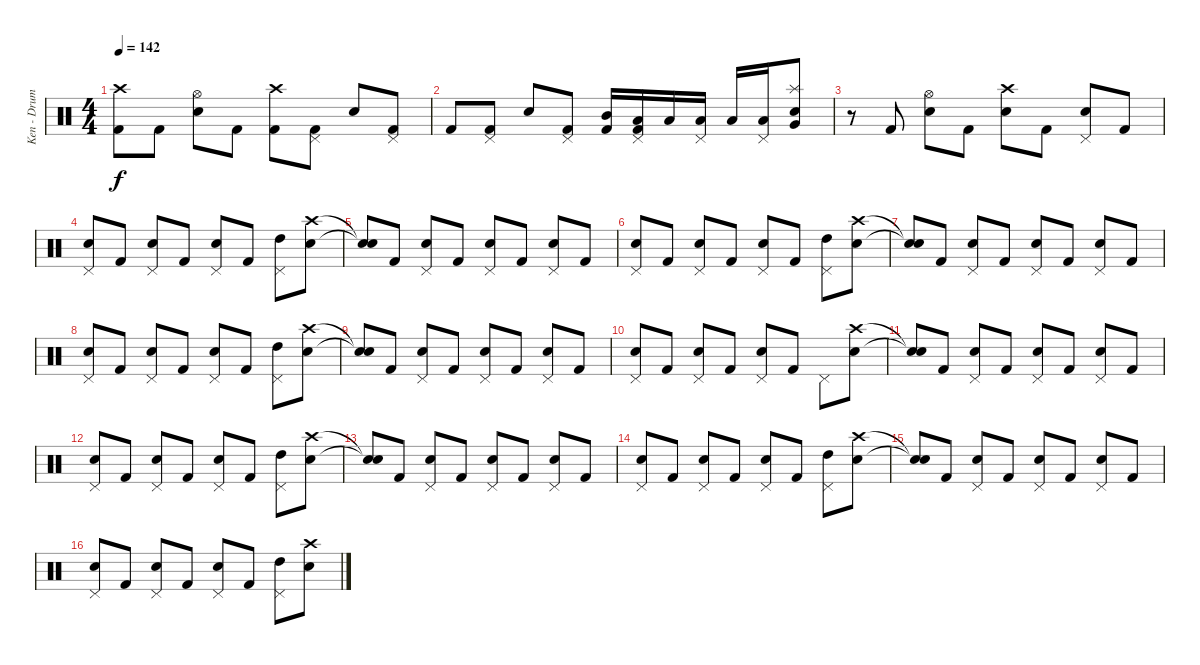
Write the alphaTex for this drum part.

\track ("Ken - Drums" "Ken - Drum") {instrument percussion}
\staff {score}
\articulation defaults
\ts (4 4)
\tempo 142
\clef neutral
\ks c
("Crash high (hit)" "Kick (hit) 2").8{dy f} "Kick (hit) 2".8 ("Hi-Hat (open)" "Electric Snare (hit)").8 "Kick (hit) 2".8 ("Crash high (hit)" "Kick (hit) 2").8 ("Pedal Hi-Hat (hit)" "Kick (hit) 2").8 "Electric Snare (hit)".8 ("Pedal Hi-Hat (hit)" "Kick (hit) 2").8 |
"Kick (hit) 2".8 ("Pedal Hi-Hat (hit)" "Kick (hit) 2").8 "Electric Snare (hit)".8 ("Pedal Hi-Hat (hit)" "Kick (hit) 2").8 ("Mid Tom (hit)" "Kick (hit) 2").16 ("Pedal Hi-Hat (hit)" "Low Tom (hit)" "Kick (hit) 2").16 "Low Tom (hit)".16 ("Pedal Hi-Hat (hit)" "Low Tom (hit)").16 "Low Tom (hit)".16 ("Pedal Hi-Hat (hit)" "Low Tom (hit)").16 ("Splash (hit)" "Electric Snare (hit)" "Very Low Tom (hit)").8 |
r.8 "Kick (hit) 2".8 ("Hi-Hat (open)" "Electric Snare (hit)").8 "Kick (hit) 2".8 ("Crash high (hit)" "Electric Snare (hit)").8 "Kick (hit) 2".8 ("Pedal Hi-Hat (hit)" "Electric Snare (hit)").8 "Kick (hit) 2".8 |
("Pedal Hi-Hat (hit)" "Electric Snare (hit)").8 "Kick (hit) 2".8 ("Pedal Hi-Hat (hit)" "Electric Snare (hit)").8 "Kick (hit) 2".8 ("Pedal Hi-Hat (hit)" "Electric Snare (hit)").8 "Kick (hit) 2".8 ("Pedal Hi-Hat (hit)" "High Tom (hit)").8 ("Crash high (hit)" "Electric Snare (hit)").8 |
("Snare (hit)"{t} "Snare (hit)"{t}).8 "Kick (hit) 2".8 ("Pedal Hi-Hat (hit)" "Electric Snare (hit)").8 "Kick (hit) 2".8 ("Pedal Hi-Hat (hit)" "Electric Snare (hit)").8 "Kick (hit) 2".8 ("Pedal Hi-Hat (hit)" "Electric Snare (hit)").8 "Kick (hit) 2".8 |
("Pedal Hi-Hat (hit)" "Electric Snare (hit)").8 "Kick (hit) 2".8 ("Pedal Hi-Hat (hit)" "Electric Snare (hit)").8 "Kick (hit) 2".8 ("Pedal Hi-Hat (hit)" "Electric Snare (hit)").8 "Kick (hit) 2".8 ("Pedal Hi-Hat (hit)" "High Tom (hit)").8 ("Crash high (hit)" "Electric Snare (hit)").8 |
("Snare (hit)"{t} "Snare (hit)"{t}).8 "Kick (hit) 2".8 ("Pedal Hi-Hat (hit)" "Electric Snare (hit)").8 "Kick (hit) 2".8 ("Pedal Hi-Hat (hit)" "Electric Snare (hit)").8 "Kick (hit) 2".8 ("Pedal Hi-Hat (hit)" "Electric Snare (hit)").8 "Kick (hit) 2".8 |
("Pedal Hi-Hat (hit)" "Electric Snare (hit)").8 "Kick (hit) 2".8 ("Pedal Hi-Hat (hit)" "Electric Snare (hit)").8 "Kick (hit) 2".8 ("Pedal Hi-Hat (hit)" "Electric Snare (hit)").8 "Kick (hit) 2".8 ("Pedal Hi-Hat (hit)" "High Tom (hit)").8 ("Crash high (hit)" "Electric Snare (hit)").8 |
("Snare (hit)"{t} "Snare (hit)"{t}).8 "Kick (hit) 2".8 ("Pedal Hi-Hat (hit)" "Electric Snare (hit)").8 "Kick (hit) 2".8 ("Pedal Hi-Hat (hit)" "Electric Snare (hit)").8 "Kick (hit) 2".8 ("Pedal Hi-Hat (hit)" "Electric Snare (hit)").8 "Kick (hit) 2".8 |
("Pedal Hi-Hat (hit)" "Electric Snare (hit)").8 "Kick (hit) 2".8 ("Pedal Hi-Hat (hit)" "Electric Snare (hit)").8 "Kick (hit) 2".8 ("Pedal Hi-Hat (hit)" "Electric Snare (hit)").8 "Kick (hit) 2".8 "Pedal Hi-Hat (hit)".8 ("Crash high (hit)" "Electric Snare (hit)").8 |
("Snare (hit)"{t} "Snare (hit)"{t}).8 "Kick (hit) 2".8 ("Pedal Hi-Hat (hit)" "Electric Snare (hit)").8 "Kick (hit) 2".8 ("Pedal Hi-Hat (hit)" "Electric Snare (hit)").8 "Kick (hit) 2".8 ("Pedal Hi-Hat (hit)" "Electric Snare (hit)").8 "Kick (hit) 2".8 |
("Pedal Hi-Hat (hit)" "Electric Snare (hit)").8 "Kick (hit) 2".8 ("Pedal Hi-Hat (hit)" "Electric Snare (hit)").8 "Kick (hit) 2".8 ("Pedal Hi-Hat (hit)" "Electric Snare (hit)").8 "Kick (hit) 2".8 ("Pedal Hi-Hat (hit)" "High Tom (hit)").8 ("Crash high (hit)" "Electric Snare (hit)").8 |
("Snare (hit)"{t} "Snare (hit)"{t}).8 "Kick (hit) 2".8 ("Pedal Hi-Hat (hit)" "Electric Snare (hit)").8 "Kick (hit) 2".8 ("Pedal Hi-Hat (hit)" "Electric Snare (hit)").8 "Kick (hit) 2".8 ("Pedal Hi-Hat (hit)" "Electric Snare (hit)").8 "Kick (hit) 2".8 |
("Pedal Hi-Hat (hit)" "Electric Snare (hit)").8 "Kick (hit) 2".8 ("Pedal Hi-Hat (hit)" "Electric Snare (hit)").8 "Kick (hit) 2".8 ("Pedal Hi-Hat (hit)" "Electric Snare (hit)").8 "Kick (hit) 2".8 ("Pedal Hi-Hat (hit)" "High Tom (hit)").8 ("Crash high (hit)" "Electric Snare (hit)").8 |
("Snare (hit)"{t} "Snare (hit)"{t}).8 "Kick (hit) 2".8 ("Pedal Hi-Hat (hit)" "Electric Snare (hit)").8 "Kick (hit) 2".8 ("Pedal Hi-Hat (hit)" "Electric Snare (hit)").8 "Kick (hit) 2".8 ("Pedal Hi-Hat (hit)" "Electric Snare (hit)").8 "Kick (hit) 2".8 |
("Pedal Hi-Hat (hit)" "Electric Snare (hit)").8 "Kick (hit) 2".8 ("Pedal Hi-Hat (hit)" "Electric Snare (hit)").8 "Kick (hit) 2".8 ("Pedal Hi-Hat (hit)" "Electric Snare (hit)").8 "Kick (hit) 2".8 ("Pedal Hi-Hat (hit)" "High Tom (hit)").8 ("Crash high (hit)" "Electric Snare (hit)").8
